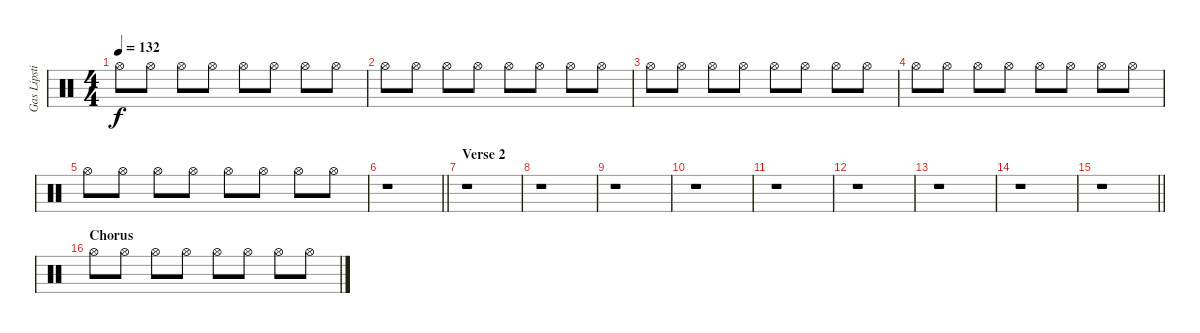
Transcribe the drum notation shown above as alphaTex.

\track ("Gas Lipstick (Drums)" "Gas Lipsti") {instrument percussion}
\staff {score}
\articulation defaults
\ts (4 4)
\tempo 132
\clef neutral
\ks c "Hi-Hat (open)".8{dy f} "Hi-Hat (open)".8 "Hi-Hat (open)".8 "Hi-Hat (open)".8 "Hi-Hat (open)".8 "Hi-Hat (open)".8 "Hi-Hat (open)".8 "Hi-Hat (open)".8
|
"Hi-Hat (open)".8 "Hi-Hat (open)".8 "Hi-Hat (open)".8 "Hi-Hat (open)".8 "Hi-Hat (open)".8 "Hi-Hat (open)".8 "Hi-Hat (open)".8 "Hi-Hat (open)".8 |
"Hi-Hat (open)".8 "Hi-Hat (open)".8 "Hi-Hat (open)".8 "Hi-Hat (open)".8 "Hi-Hat (open)".8 "Hi-Hat (open)".8 "Hi-Hat (open)".8 "Hi-Hat (open)".8 |
"Hi-Hat (open)".8 "Hi-Hat (open)".8 "Hi-Hat (open)".8 "Hi-Hat (open)".8 "Hi-Hat (open)".8 "Hi-Hat (open)".8 "Hi-Hat (open)".8 "Hi-Hat (open)".8 |
"Hi-Hat (open)".8 "Hi-Hat (open)".8 "Hi-Hat (open)".8 "Hi-Hat (open)".8 "Hi-Hat (open)".8 "Hi-Hat (open)".8 "Hi-Hat (open)".8 "Hi-Hat (open)".8 |
\barLineRight lightlight
r.1 |
\section ("" "Verse 2")
r.1 |
r.1 |
r.1 |
r.1 |
r.1 |
r.1 |
r.1 |
r.1 |
\barLineRight lightlight
r.1 |
\section ("" "Chorus")
"Hi-Hat (open)".8 "Hi-Hat (open)".8 "Hi-Hat (open)".8 "Hi-Hat (open)".8 "Hi-Hat (open)".8 "Hi-Hat (open)".8 "Hi-Hat (open)".8 "Hi-Hat (open)".8
